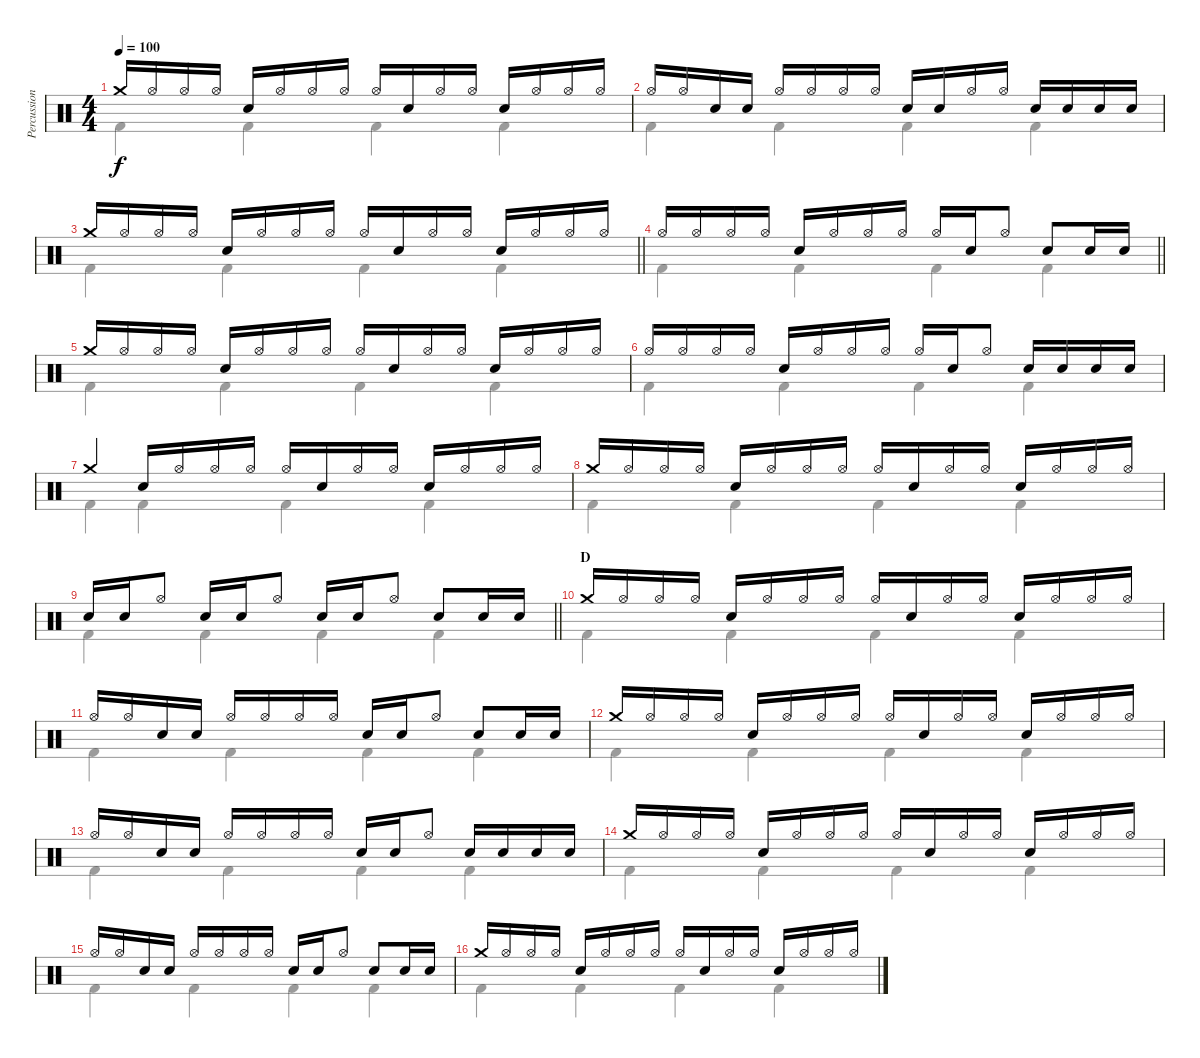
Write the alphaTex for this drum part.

\track ("Percussion" "Percussion") {instrument percussion}
\staff {score}
\articulation defaults
\voice
\ts (4 4)
\tempo 100
\clef neutral
\ks c "Crash medium (hit)".16{dy f} "Hi-Hat (open)".16 "Hi-Hat (open)".16 "Hi-Hat (open)".16 "Snare (hit) 2".16 "Hi-Hat (open)".16 "Hi-Hat (open)".16 "Hi-Hat (open)".16 "Hi-Hat (open)".16 "Snare (hit) 2".16 "Hi-Hat (open)".16 "Hi-Hat (open)".16 "Snare (hit) 2".16 "Hi-Hat (open)".16 "Hi-Hat (open)".16 "Hi-Hat (open)".16
|
"Hi-Hat (open)".16 "Hi-Hat (open)".16 "Snare (hit) 2".16 "Snare (hit) 2".16 "Hi-Hat (open)".16 "Hi-Hat (open)".16 "Hi-Hat (open)".16 "Hi-Hat (open)".16 "Snare (hit) 2".16 "Snare (hit) 2".16 "Hi-Hat (open)".16 "Hi-Hat (open)".16 "Snare (hit) 2".16 "Snare (hit) 2".16 "Snare (hit) 2".16 "Snare (hit) 2".16 |
\barLineRight lightlight "Crash medium (hit)".16 "Hi-Hat (open)".16 "Hi-Hat (open)".16 "Hi-Hat (open)".16 "Snare (hit) 2".16 "Hi-Hat (open)".16 "Hi-Hat (open)".16 "Hi-Hat (open)".16 "Hi-Hat (open)".16 "Snare (hit) 2".16 "Hi-Hat (open)".16 "Hi-Hat (open)".16 "Snare (hit) 2".16 "Hi-Hat (open)".16 "Hi-Hat (open)".16 "Hi-Hat (open)".16
|
\barLineRight lightlight "Hi-Hat (open)".16 "Hi-Hat (open)".16 "Hi-Hat (open)".16 "Hi-Hat (open)".16 "Snare (hit) 2".16 "Hi-Hat (open)".16 "Hi-Hat (open)".16 "Hi-Hat (open)".16 "Hi-Hat (open)".16 "Snare (hit) 2".16 "Hi-Hat (open)".8 "Snare (hit) 2".8 "Snare (hit) 2".16 "Snare (hit) 2".16
|
"Crash medium (hit)".16 "Hi-Hat (open)".16 "Hi-Hat (open)".16 "Hi-Hat (open)".16 "Snare (hit) 2".16 "Hi-Hat (open)".16 "Hi-Hat (open)".16 "Hi-Hat (open)".16 "Hi-Hat (open)".16 "Snare (hit) 2".16 "Hi-Hat (open)".16 "Hi-Hat (open)".16 "Snare (hit) 2".16 "Hi-Hat (open)".16 "Hi-Hat (open)".16 "Hi-Hat (open)".16 |
"Hi-Hat (open)".16 "Hi-Hat (open)".16 "Hi-Hat (open)".16 "Hi-Hat (open)".16 "Snare (hit) 2".16 "Hi-Hat (open)".16 "Hi-Hat (open)".16 "Hi-Hat (open)".16 "Hi-Hat (open)".16 "Snare (hit) 2".16 "Hi-Hat (open)".8 "Snare (hit) 2".16 "Snare (hit) 2".16 "Snare (hit) 2".16 "Snare (hit) 2".16 |
"Crash medium (hit)".4 "Snare (hit) 2".16 "Hi-Hat (open)".16 "Hi-Hat (open)".16 "Hi-Hat (open)".16 "Hi-Hat (open)".16 "Snare (hit) 2".16 "Hi-Hat (open)".16 "Hi-Hat (open)".16 "Snare (hit) 2".16 "Hi-Hat (open)".16 "Hi-Hat (open)".16 "Hi-Hat (open)".16 |
"Crash medium (hit)".16 "Hi-Hat (open)".16 "Hi-Hat (open)".16 "Hi-Hat (open)".16 "Snare (hit) 2".16 "Hi-Hat (open)".16 "Hi-Hat (open)".16 "Hi-Hat (open)".16 "Hi-Hat (open)".16 "Snare (hit) 2".16 "Hi-Hat (open)".16 "Hi-Hat (open)".16 "Snare (hit) 2".16 "Hi-Hat (open)".16 "Hi-Hat (open)".16 "Hi-Hat (open)".16 |
\barLineRight lightlight "Snare (hit) 2".16 "Snare (hit) 2".16 "Hi-Hat (open)".8 "Snare (hit) 2".16 "Snare (hit) 2".16 "Hi-Hat (open)".8 "Snare (hit) 2".16 "Snare (hit) 2".16 "Hi-Hat (open)".8 "Snare (hit) 2".8 "Snare (hit) 2".16 "Snare (hit) 2".16
|
\section ("" "D")
"Crash medium (hit)".16 "Hi-Hat (open)".16 "Hi-Hat (open)".16 "Hi-Hat (open)".16 "Snare (hit) 2".16 "Hi-Hat (open)".16 "Hi-Hat (open)".16 "Hi-Hat (open)".16 "Hi-Hat (open)".16 "Snare (hit) 2".16 "Hi-Hat (open)".16 "Hi-Hat (open)".16 "Snare (hit) 2".16 "Hi-Hat (open)".16 "Hi-Hat (open)".16 "Hi-Hat (open)".16 |
"Hi-Hat (open)".16 "Hi-Hat (open)".16 "Snare (hit) 2".16 "Snare (hit) 2".16 "Hi-Hat (open)".16 "Hi-Hat (open)".16 "Hi-Hat (open)".16 "Hi-Hat (open)".16 "Snare (hit) 2".16 "Snare (hit) 2".16 "Hi-Hat (open)".8 "Snare (hit) 2".8 "Snare (hit) 2".16 "Snare (hit) 2".16 |
"Crash medium (hit)".16 "Hi-Hat (open)".16 "Hi-Hat (open)".16 "Hi-Hat (open)".16 "Snare (hit) 2".16 "Hi-Hat (open)".16 "Hi-Hat (open)".16 "Hi-Hat (open)".16 "Hi-Hat (open)".16 "Snare (hit) 2".16 "Hi-Hat (open)".16 "Hi-Hat (open)".16 "Snare (hit) 2".16 "Hi-Hat (open)".16 "Hi-Hat (open)".16 "Hi-Hat (open)".16 |
"Hi-Hat (open)".16 "Hi-Hat (open)".16 "Snare (hit) 2".16 "Snare (hit) 2".16 "Hi-Hat (open)".16 "Hi-Hat (open)".16 "Hi-Hat (open)".16 "Hi-Hat (open)".16 "Snare (hit) 2".16 "Snare (hit) 2".16 "Hi-Hat (open)".8 "Snare (hit) 2".16 "Snare (hit) 2".16 "Snare (hit) 2".16 "Snare (hit) 2".16 |
"Crash medium (hit)".16 "Hi-Hat (open)".16 "Hi-Hat (open)".16 "Hi-Hat (open)".16 "Snare (hit) 2".16 "Hi-Hat (open)".16 "Hi-Hat (open)".16 "Hi-Hat (open)".16 "Hi-Hat (open)".16 "Snare (hit) 2".16 "Hi-Hat (open)".16 "Hi-Hat (open)".16 "Snare (hit) 2".16 "Hi-Hat (open)".16 "Hi-Hat (open)".16 "Hi-Hat (open)".16 |
"Hi-Hat (open)".16 "Hi-Hat (open)".16 "Snare (hit) 2".16 "Snare (hit) 2".16 "Hi-Hat (open)".16 "Hi-Hat (open)".16 "Hi-Hat (open)".16 "Hi-Hat (open)".16 "Snare (hit) 2".16 "Snare (hit) 2".16 "Hi-Hat (open)".8 "Snare (hit) 2".8 "Snare (hit) 2".16 "Snare (hit) 2".16 |
"Crash medium (hit)".16 "Hi-Hat (open)".16 "Hi-Hat (open)".16 "Hi-Hat (open)".16 "Snare (hit) 2".16 "Hi-Hat (open)".16 "Hi-Hat (open)".16 "Hi-Hat (open)".16 "Hi-Hat (open)".16 "Snare (hit) 2".16 "Hi-Hat (open)".16 "Hi-Hat (open)".16 "Snare (hit) 2".16 "Hi-Hat (open)".16 "Hi-Hat (open)".16 "Hi-Hat (open)".16
\voice
\clef neutral
\ottava regular
\simile none
\ks c "Kick (hit) 2".4{dy f} "Kick (hit) 2".4 "Kick (hit) 2".4 "Kick (hit) 2".4
|
"Kick (hit) 2".4 "Kick (hit) 2".4 "Kick (hit) 2".4 "Kick (hit) 2".4 |
\barLineRight lightlight "Kick (hit) 2".4 "Kick (hit) 2".4 "Kick (hit) 2".4 "Kick (hit) 2".4
|
\barLineRight lightlight "Kick (hit) 2".4 "Kick (hit) 2".4 "Kick (hit) 2".4 "Kick (hit) 2".4
|
"Kick (hit) 2".4 "Kick (hit) 2".4 "Kick (hit) 2".4 "Kick (hit) 2".4 |
"Kick (hit) 2".4 "Kick (hit) 2".4 "Kick (hit) 2".4 "Kick (hit) 2".4 |
"Kick (hit) 2".4 "Kick (hit) 2".4 "Kick (hit) 2".4 "Kick (hit) 2".4 |
"Kick (hit) 2".4 "Kick (hit) 2".4 "Kick (hit) 2".4 "Kick (hit) 2".4 |
\barLineRight lightlight "Kick (hit) 2".4 "Kick (hit) 2".4 "Kick (hit) 2".4 "Kick (hit) 2".4
|
"Kick (hit) 2".4 "Kick (hit) 2".4 "Kick (hit) 2".4 "Kick (hit) 2".4 |
"Kick (hit) 2".4 "Kick (hit) 2".4 "Kick (hit) 2".4 "Kick (hit) 2".4 |
"Kick (hit) 2".4 "Kick (hit) 2".4 "Kick (hit) 2".4 "Kick (hit) 2".4 |
"Kick (hit) 2".4 "Kick (hit) 2".4 "Kick (hit) 2".4 "Kick (hit) 2".4 |
"Kick (hit) 2".4 "Kick (hit) 2".4 "Kick (hit) 2".4 "Kick (hit) 2".4 |
"Kick (hit) 2".4 "Kick (hit) 2".4 "Kick (hit) 2".4 "Kick (hit) 2".4 |
"Kick (hit) 2".4 "Kick (hit) 2".4 "Kick (hit) 2".4 "Kick (hit) 2".4
